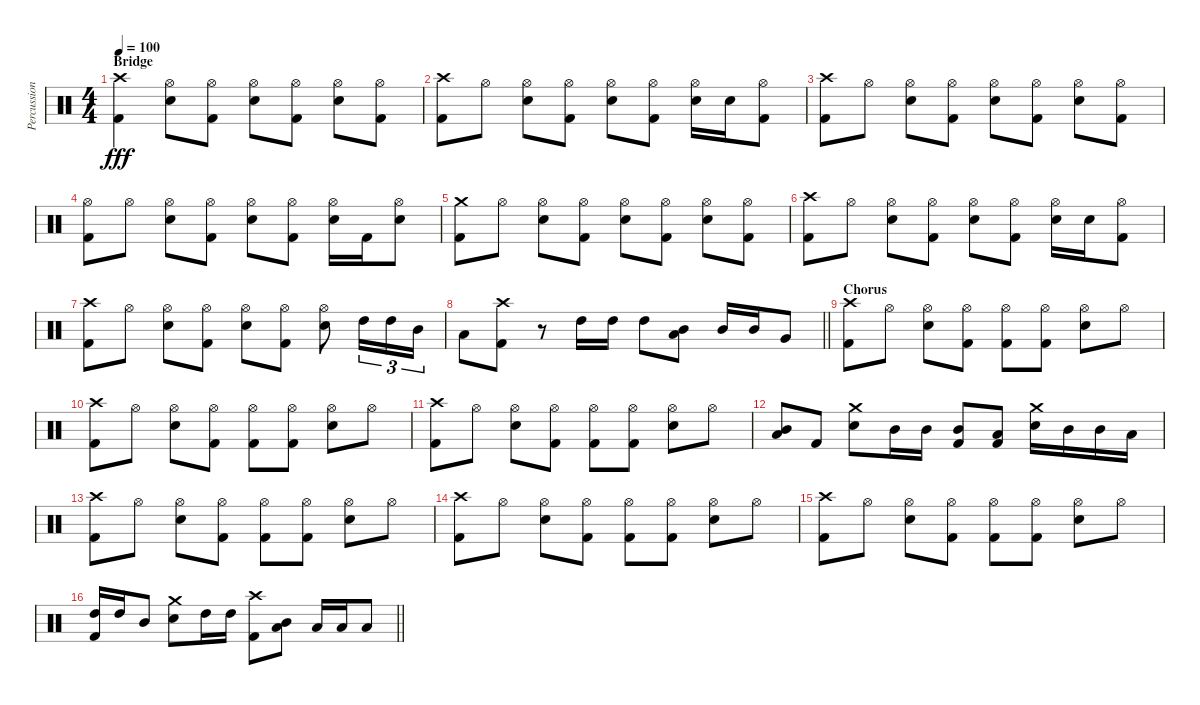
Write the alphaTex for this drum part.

\track ("Percussion" "Percussion") {instrument percussion}
\staff {score}
\articulation defaults
\ts (4 4)
\section ("" "Bridge")
\tempo 100
\clef neutral
\ks c
("Crash high (hit)" "Kick (hit) 2").4{dy fff} ("Hi-Hat (open)" "Electric Snare (hit)").8 ("Hi-Hat (open)" "Kick (hit) 2").8 ("Hi-Hat (open)" "Electric Snare (hit)").8 ("Hi-Hat (open)" "Kick (hit) 2").8 ("Hi-Hat (open)" "Electric Snare (hit)").8 ("Hi-Hat (open)" "Kick (hit) 2").8 |
("Crash high (hit)" "Kick (hit) 2").8 "Hi-Hat (open)".8 ("Hi-Hat (open)" "Electric Snare (hit)").8 ("Hi-Hat (open)" "Kick (hit) 2").8 ("Hi-Hat (open)" "Electric Snare (hit)").8 ("Hi-Hat (open)" "Kick (hit) 2").8 ("Hi-Hat (open)" "Electric Snare (hit)").16 "Electric Snare (hit)".16 ("Hi-Hat (open)" "Kick (hit) 2").8 |
("Crash high (hit)" "Kick (hit) 2").8 "Hi-Hat (open)".8 ("Hi-Hat (open)" "Electric Snare (hit)").8 ("Hi-Hat (open)" "Kick (hit) 2").8 ("Hi-Hat (open)" "Electric Snare (hit)").8 ("Hi-Hat (open)" "Kick (hit) 2").8 ("Hi-Hat (open)" "Electric Snare (hit)").8 ("Hi-Hat (open)" "Kick (hit) 2").8 |
("Hi-Hat (open)" "Kick (hit) 2").8 "Hi-Hat (open)".8 ("Hi-Hat (open)" "Electric Snare (hit)").8 ("Hi-Hat (open)" "Kick (hit) 2").8 ("Hi-Hat (open)" "Electric Snare (hit)").8 ("Hi-Hat (open)" "Kick (hit) 2").8 ("Hi-Hat (open)" "Electric Snare (hit)").16 "Kick (hit) 2".16 ("Hi-Hat (open)" "Electric Snare (hit)").8 |
("Crash medium (hit)" "Kick (hit) 2").8 "Hi-Hat (open)".8 ("Hi-Hat (open)" "Electric Snare (hit)").8 ("Hi-Hat (open)" "Kick (hit) 2").8 ("Hi-Hat (open)" "Electric Snare (hit)").8 ("Hi-Hat (open)" "Kick (hit) 2").8 ("Hi-Hat (open)" "Electric Snare (hit)").8 ("Hi-Hat (open)" "Kick (hit) 2").8 |
("Crash high (hit)" "Kick (hit) 2").8 "Hi-Hat (open)".8 ("Hi-Hat (open)" "Electric Snare (hit)").8 ("Hi-Hat (open)" "Kick (hit) 2").8 ("Hi-Hat (open)" "Electric Snare (hit)").8 ("Hi-Hat (open)" "Kick (hit) 2").8 ("Hi-Hat (open)" "Electric Snare (hit)").16 "Electric Snare (hit)".16 ("Hi-Hat (open)" "Kick (hit) 2").8 |
("Crash high (hit)" "Kick (hit) 2").8 "Hi-Hat (open)".8 ("Hi-Hat (open)" "Electric Snare (hit)").8 ("Hi-Hat (open)" "Kick (hit) 2").8 ("Hi-Hat (open)" "Electric Snare (hit)").8 ("Hi-Hat (open)" "Kick (hit) 2").8 ("Hi-Hat (open)" "Electric Snare (hit)").8 "High Tom (hit)".16{tu (3 2)} "High Tom (hit)".16{tu (3 2)} "Mid Tom (hit)".16{tu (3 2)} |
\barLineRight lightlight "Low Tom (hit)".8
("Crash high (hit)" "Kick (hit) 2").8 r.8 "High Tom (hit)".16 "High Tom (hit)".16 "High Tom (hit)".8 ("Mid Tom (hit)" "Low Tom (hit)").8 "Mid Tom (hit)".16 "Mid Tom (hit)".16 "Very Low Tom (hit)".8 |
\section ("" "Chorus")
("Crash high (hit)" "Kick (hit) 2").8 "Hi-Hat (open)".8 ("Hi-Hat (open)" "Electric Snare (hit)").8 ("Hi-Hat (open)" "Kick (hit) 2").8 ("Hi-Hat (open)" "Kick (hit) 2").8 ("Hi-Hat (open)" "Kick (hit) 2").8 ("Hi-Hat (open)" "Electric Snare (hit)").8 "Hi-Hat (open)".8 |
("Crash high (hit)" "Kick (hit) 2").8 "Hi-Hat (open)".8 ("Hi-Hat (open)" "Electric Snare (hit)").8 ("Hi-Hat (open)" "Kick (hit) 2").8 ("Hi-Hat (open)" "Kick (hit) 2").8 ("Hi-Hat (open)" "Kick (hit) 2").8 ("Hi-Hat (open)" "Electric Snare (hit)").8 "Hi-Hat (open)".8 |
("Crash high (hit)" "Kick (hit) 2").8 "Hi-Hat (open)".8 ("Hi-Hat (open)" "Electric Snare (hit)").8 ("Hi-Hat (open)" "Kick (hit) 2").8 ("Hi-Hat (open)" "Kick (hit) 2").8 ("Hi-Hat (open)" "Kick (hit) 2").8 ("Hi-Hat (open)" "Electric Snare (hit)").8 "Hi-Hat (open)".8 |
("Mid Tom (hit)" "Low Tom (hit)").8 "Kick (hit) 2".8 ("Crash medium (hit)" "Electric Snare (hit)").8 "Mid Tom (hit)".16 "Mid Tom (hit)".16 ("Mid Tom (hit)" "Kick (hit) 2").8 ("Low Tom (hit)" "Kick (hit) 2").8 ("Crash medium (hit)" "Electric Snare (hit)").16 "Mid Tom (hit)".16 "Mid Tom (hit)".16 "Low Tom (hit)".16 |
("Crash high (hit)" "Kick (hit) 2").8 "Hi-Hat (open)".8 ("Hi-Hat (open)" "Electric Snare (hit)").8 ("Hi-Hat (open)" "Kick (hit) 2").8 ("Hi-Hat (open)" "Kick (hit) 2").8 ("Hi-Hat (open)" "Kick (hit) 2").8 ("Hi-Hat (open)" "Electric Snare (hit)").8 "Hi-Hat (open)".8 |
("Crash high (hit)" "Kick (hit) 2").8 "Hi-Hat (open)".8 ("Hi-Hat (open)" "Electric Snare (hit)").8 ("Hi-Hat (open)" "Kick (hit) 2").8 ("Hi-Hat (open)" "Kick (hit) 2").8 ("Hi-Hat (open)" "Kick (hit) 2").8 ("Hi-Hat (open)" "Electric Snare (hit)").8 "Hi-Hat (open)".8 |
("Crash high (hit)" "Kick (hit) 2").8 "Hi-Hat (open)".8 ("Hi-Hat (open)" "Electric Snare (hit)").8 ("Hi-Hat (open)" "Kick (hit) 2").8 ("Hi-Hat (open)" "Kick (hit) 2").8 ("Hi-Hat (open)" "Kick (hit) 2").8 ("Hi-Hat (open)" "Electric Snare (hit)").8 "Hi-Hat (open)".8 |
\barLineRight lightlight
("High Tom (hit)" "Kick (hit) 2").16 "High Tom (hit)".16 "Mid Tom (hit)".8 ("Crash medium (hit)" "Electric Snare (hit)").8 "High Tom (hit)".16 "High Tom (hit)".16 ("Crash high (hit)" "Kick (hit) 2").8 ("Mid Tom (hit)" "Low Tom (hit)").8 "Low Tom (hit)".16 "Low Tom (hit)".16 "Low Tom (hit)".8
